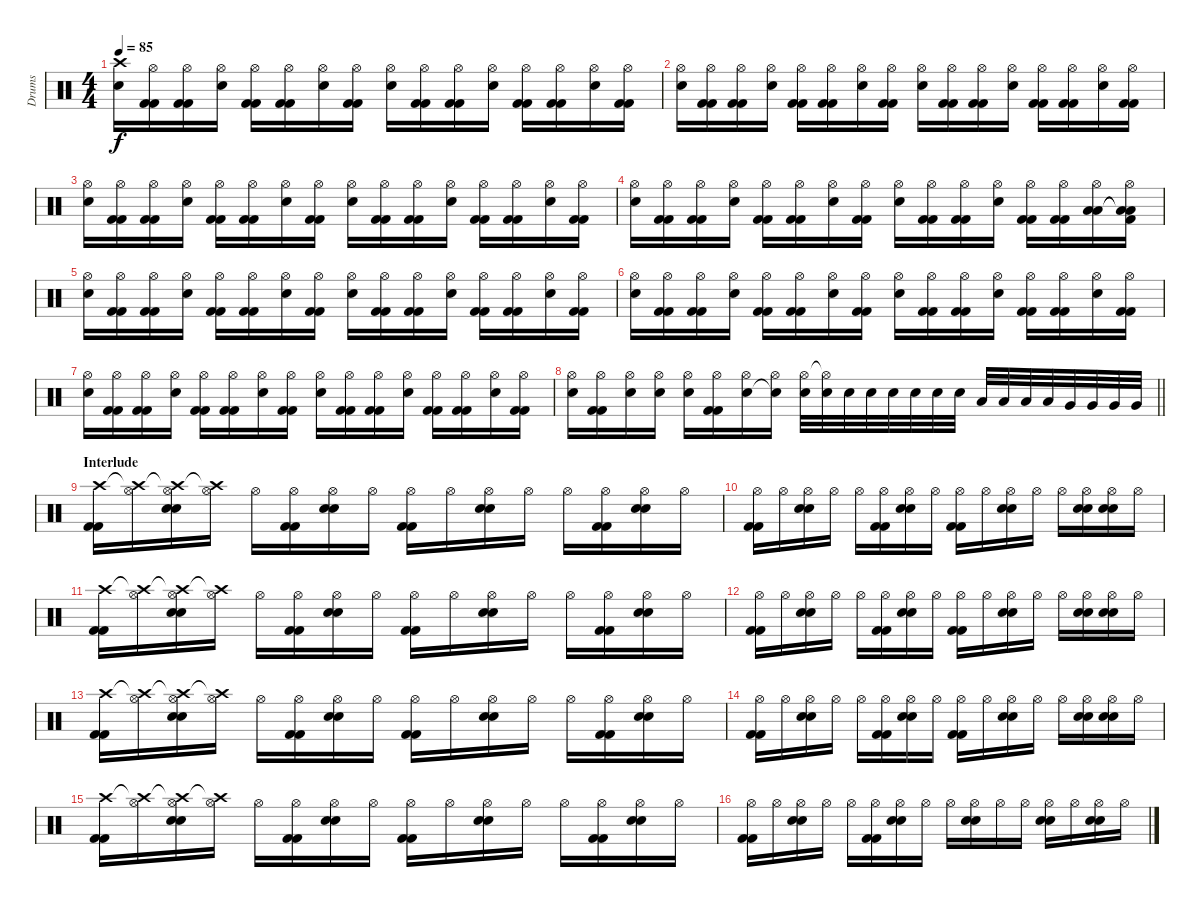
\track ("Drums" "Drums") {instrument percussion}
\staff {score}
\articulation defaults
\ts (4 4)
\tempo 85
\clef neutral
\ks c
("Crash high (hit)" "Snare (hit) 2").16{dy f} ("Hi-Hat (open)" "Kick (hit) 2" "Kick (hit) 2").16 ("Hi-Hat (open)" "Kick (hit) 2" "Kick (hit) 2").16 ("Hi-Hat (open)" "Snare (hit) 2").16 ("Hi-Hat (open)" "Kick (hit) 2" "Kick (hit) 2").16 ("Hi-Hat (open)" "Kick (hit) 2" "Kick (hit) 2").16 ("Hi-Hat (open)" "Snare (hit) 2").16 ("Hi-Hat (open)" "Kick (hit) 2" "Kick (hit) 2").16 ("Hi-Hat (open)" "Snare (hit) 2").16 ("Hi-Hat (open)" "Kick (hit) 2" "Kick (hit) 2").16 ("Hi-Hat (open)" "Kick (hit) 2" "Kick (hit) 2").16 ("Hi-Hat (open)" "Snare (hit) 2").16 ("Hi-Hat (open)" "Kick (hit) 2" "Kick (hit) 2").16 ("Hi-Hat (open)" "Kick (hit) 2" "Kick (hit) 2").16 ("Hi-Hat (open)" "Snare (hit) 2").16 ("Hi-Hat (open)" "Kick (hit) 2" "Kick (hit) 2").16 |
("Hi-Hat (open)" "Snare (hit) 2").16 ("Hi-Hat (open)" "Kick (hit) 2" "Kick (hit) 2").16 ("Hi-Hat (open)" "Kick (hit) 2" "Kick (hit) 2").16 ("Hi-Hat (open)" "Snare (hit) 2").16 ("Hi-Hat (open)" "Kick (hit) 2" "Kick (hit) 2").16 ("Hi-Hat (open)" "Kick (hit) 2" "Kick (hit) 2").16 ("Hi-Hat (open)" "Snare (hit) 2").16 ("Hi-Hat (open)" "Kick (hit) 2" "Kick (hit) 2").16 ("Hi-Hat (open)" "Snare (hit) 2").16 ("Hi-Hat (open)" "Kick (hit) 2" "Kick (hit) 2").16 ("Hi-Hat (open)" "Kick (hit) 2" "Kick (hit) 2").16 ("Hi-Hat (open)" "Snare (hit) 2").16 ("Hi-Hat (open)" "Kick (hit) 2" "Kick (hit) 2").16 ("Hi-Hat (open)" "Kick (hit) 2" "Kick (hit) 2").16 ("Hi-Hat (open)" "Snare (hit) 2").16 ("Hi-Hat (open)" "Kick (hit) 2" "Kick (hit) 2").16 |
("Hi-Hat (open)" "Snare (hit) 2").16 ("Hi-Hat (open)" "Kick (hit) 2" "Kick (hit) 2").16 ("Hi-Hat (open)" "Kick (hit) 2" "Kick (hit) 2").16 ("Hi-Hat (open)" "Snare (hit) 2").16 ("Hi-Hat (open)" "Kick (hit) 2" "Kick (hit) 2").16 ("Hi-Hat (open)" "Kick (hit) 2" "Kick (hit) 2").16 ("Hi-Hat (open)" "Snare (hit) 2").16 ("Hi-Hat (open)" "Kick (hit) 2" "Kick (hit) 2").16 ("Hi-Hat (open)" "Snare (hit) 2").16 ("Hi-Hat (open)" "Kick (hit) 2" "Kick (hit) 2").16 ("Hi-Hat (open)" "Kick (hit) 2" "Kick (hit) 2").16 ("Hi-Hat (open)" "Snare (hit) 2").16 ("Hi-Hat (open)" "Kick (hit) 2" "Kick (hit) 2").16 ("Hi-Hat (open)" "Kick (hit) 2" "Kick (hit) 2").16 ("Hi-Hat (open)" "Snare (hit) 2").16 ("Hi-Hat (open)" "Kick (hit) 2" "Kick (hit) 2").16 |
("Hi-Hat (open)" "Snare (hit) 2").16 ("Hi-Hat (open)" "Kick (hit) 2" "Kick (hit) 2").16 ("Hi-Hat (open)" "Kick (hit) 2" "Kick (hit) 2").16 ("Hi-Hat (open)" "Snare (hit) 2").16 ("Hi-Hat (open)" "Kick (hit) 2" "Kick (hit) 2").16 ("Hi-Hat (open)" "Kick (hit) 2" "Kick (hit) 2").16 ("Hi-Hat (open)" "Snare (hit) 2").16 ("Hi-Hat (open)" "Kick (hit) 2" "Kick (hit) 2").16 ("Hi-Hat (open)" "Snare (hit) 2").16 ("Hi-Hat (open)" "Kick (hit) 2" "Kick (hit) 2").16 ("Hi-Hat (open)" "Kick (hit) 2" "Kick (hit) 2").16 ("Hi-Hat (open)" "Snare (hit) 2").16 ("Hi-Hat (open)" "Kick (hit) 2" "Kick (hit) 2").16 ("Hi-Hat (open)" "Kick (hit) 2" "Kick (hit) 2").16 ("Hi-Hat (open)" "Low Tom (hit)" "Low Tom (hit)").16 ("Hi-Hat (open)" "Low Tom (hit)"{t} "Low Tom (hit)"{t} "Kick (hit) 2").16 |
("Hi-Hat (open)" "Snare (hit) 2").16 ("Hi-Hat (open)" "Kick (hit) 2" "Kick (hit) 2").16 ("Hi-Hat (open)" "Kick (hit) 2" "Kick (hit) 2").16 ("Hi-Hat (open)" "Snare (hit) 2").16 ("Hi-Hat (open)" "Kick (hit) 2" "Kick (hit) 2").16 ("Hi-Hat (open)" "Kick (hit) 2" "Kick (hit) 2").16 ("Hi-Hat (open)" "Snare (hit) 2").16 ("Hi-Hat (open)" "Kick (hit) 2" "Kick (hit) 2").16 ("Hi-Hat (open)" "Snare (hit) 2").16 ("Hi-Hat (open)" "Kick (hit) 2" "Kick (hit) 2").16 ("Hi-Hat (open)" "Kick (hit) 2" "Kick (hit) 2").16 ("Hi-Hat (open)" "Snare (hit) 2").16 ("Hi-Hat (open)" "Kick (hit) 2" "Kick (hit) 2").16 ("Hi-Hat (open)" "Kick (hit) 2" "Kick (hit) 2").16 ("Hi-Hat (open)" "Snare (hit) 2").16 ("Hi-Hat (open)" "Kick (hit) 2" "Kick (hit) 2").16 |
("Hi-Hat (open)" "Snare (hit) 2").16 ("Hi-Hat (open)" "Kick (hit) 2" "Kick (hit) 2").16 ("Hi-Hat (open)" "Kick (hit) 2" "Kick (hit) 2").16 ("Hi-Hat (open)" "Snare (hit) 2").16 ("Hi-Hat (open)" "Kick (hit) 2" "Kick (hit) 2").16 ("Hi-Hat (open)" "Kick (hit) 2" "Kick (hit) 2").16 ("Hi-Hat (open)" "Snare (hit) 2").16 ("Hi-Hat (open)" "Kick (hit) 2" "Kick (hit) 2").16 ("Hi-Hat (open)" "Snare (hit) 2").16 ("Hi-Hat (open)" "Kick (hit) 2" "Kick (hit) 2").16 ("Hi-Hat (open)" "Kick (hit) 2" "Kick (hit) 2").16 ("Hi-Hat (open)" "Snare (hit) 2").16 ("Hi-Hat (open)" "Kick (hit) 2" "Kick (hit) 2").16 ("Hi-Hat (open)" "Kick (hit) 2" "Kick (hit) 2").16 ("Hi-Hat (open)" "Snare (hit) 2").16 ("Hi-Hat (open)" "Kick (hit) 2" "Kick (hit) 2").16 |
("Hi-Hat (open)" "Snare (hit) 2").16 ("Hi-Hat (open)" "Kick (hit) 2" "Kick (hit) 2").16 ("Hi-Hat (open)" "Kick (hit) 2" "Kick (hit) 2").16 ("Hi-Hat (open)" "Snare (hit) 2").16 ("Hi-Hat (open)" "Kick (hit) 2" "Kick (hit) 2").16 ("Hi-Hat (open)" "Kick (hit) 2" "Kick (hit) 2").16 ("Hi-Hat (open)" "Snare (hit) 2").16 ("Hi-Hat (open)" "Kick (hit) 2" "Kick (hit) 2").16 ("Hi-Hat (open)" "Snare (hit) 2").16 ("Hi-Hat (open)" "Kick (hit) 2" "Kick (hit) 2").16 ("Hi-Hat (open)" "Kick (hit) 2" "Kick (hit) 2").16 ("Hi-Hat (open)" "Snare (hit) 2").16 ("Hi-Hat (open)" "Kick (hit) 2" "Kick (hit) 2").16 ("Hi-Hat (open)" "Kick (hit) 2" "Kick (hit) 2").16 ("Hi-Hat (open)" "Snare (hit) 2").16 ("Hi-Hat (open)" "Kick (hit) 2" "Kick (hit) 2").16 |
\barLineRight lightlight
("Hi-Hat (open)" "Snare (hit) 2").16 ("Hi-Hat (open)" "Kick (hit) 2" "Kick (hit) 2").16 ("Hi-Hat (open)" "Snare (hit) 2").16 ("Hi-Hat (open)" "Snare (hit) 2").16 ("Hi-Hat (open)" "Snare (hit) 2").16 ("Hi-Hat (open)" "Kick (hit) 2" "Kick (hit) 2").16 ("Hi-Hat (open)" "Snare (hit) 2").16 ("Hi-Hat (open)" "Snare (hit) 2"{t}).16 ("Hi-Hat (open)" "Snare (hit) 2").32 ("Hi-Hat (open)"{t} "Snare (hit) 2").32 "Snare (hit) 2".32 "Snare (hit) 2".32 "Snare (hit) 2".32 "Snare (hit) 2".32 "Snare (hit) 2".32 "Snare (hit) 2".32 "Low Tom (hit)".32 "Low Tom (hit)".32 "Low Tom (hit)".32 "Low Tom (hit)".32 "Very Low Tom (hit)".32 "Very Low Tom (hit)".32 "Very Low Tom (hit)".32 "Very Low Tom (hit)".32 |
\section ("" "Interlude")
("Crash high (hit)" "Kick (hit) 2" "Kick (hit) 2").16 ("Crash high (hit)"{t} "Hi-Hat (open)").16 ("Crash high (hit)"{t} "Hi-Hat (open)" "Snare (hit) 2" "Snare (hit) 2").16 ("Crash high (hit)"{t} "Hi-Hat (open)").16 "Hi-Hat (open)".16 ("Hi-Hat (open)" "Kick (hit) 2" "Kick (hit) 2").16 ("Hi-Hat (open)" "Snare (hit) 2" "Snare (hit) 2").16 "Hi-Hat (open)".16 ("Hi-Hat (open)" "Kick (hit) 2" "Kick (hit) 2").16 "Hi-Hat (open)".16 ("Hi-Hat (open)" "Snare (hit) 2" "Snare (hit) 2").16 "Hi-Hat (open)".16 "Hi-Hat (open)".16 ("Hi-Hat (open)" "Kick (hit) 2" "Kick (hit) 2").16 ("Hi-Hat (open)" "Snare (hit) 2" "Snare (hit) 2").16 "Hi-Hat (open)".16 |
("Hi-Hat (open)" "Kick (hit) 2" "Kick (hit) 2").16 "Hi-Hat (open)".16 ("Hi-Hat (open)" "Snare (hit) 2" "Snare (hit) 2").16 "Hi-Hat (open)".16 "Hi-Hat (open)".16 ("Hi-Hat (open)" "Kick (hit) 2" "Kick (hit) 2").16 ("Hi-Hat (open)" "Snare (hit) 2" "Snare (hit) 2").16 "Hi-Hat (open)".16 ("Hi-Hat (open)" "Kick (hit) 2" "Kick (hit) 2").16 "Hi-Hat (open)".16 ("Hi-Hat (open)" "Snare (hit) 2" "Snare (hit) 2").16 "Hi-Hat (open)".16 "Hi-Hat (open)".16 ("Hi-Hat (open)" "Snare (hit) 2" "Snare (hit) 2").16 ("Hi-Hat (open)" "Snare (hit) 2" "Snare (hit) 2").16 "Hi-Hat (open)".16 |
("Crash high (hit)" "Kick (hit) 2" "Kick (hit) 2").16 ("Crash high (hit)"{t} "Hi-Hat (open)").16 ("Crash high (hit)"{t} "Hi-Hat (open)" "Snare (hit) 2" "Snare (hit) 2").16 ("Crash high (hit)"{t} "Hi-Hat (open)").16 "Hi-Hat (open)".16 ("Hi-Hat (open)" "Kick (hit) 2" "Kick (hit) 2").16 ("Hi-Hat (open)" "Snare (hit) 2" "Snare (hit) 2").16 "Hi-Hat (open)".16 ("Hi-Hat (open)" "Kick (hit) 2" "Kick (hit) 2").16 "Hi-Hat (open)".16 ("Hi-Hat (open)" "Snare (hit) 2" "Snare (hit) 2").16 "Hi-Hat (open)".16 "Hi-Hat (open)".16 ("Hi-Hat (open)" "Kick (hit) 2" "Kick (hit) 2").16 ("Hi-Hat (open)" "Snare (hit) 2" "Snare (hit) 2").16 "Hi-Hat (open)".16 |
("Hi-Hat (open)" "Kick (hit) 2" "Kick (hit) 2").16 "Hi-Hat (open)".16 ("Hi-Hat (open)" "Snare (hit) 2" "Snare (hit) 2").16 "Hi-Hat (open)".16 "Hi-Hat (open)".16 ("Hi-Hat (open)" "Kick (hit) 2" "Kick (hit) 2").16 ("Hi-Hat (open)" "Snare (hit) 2" "Snare (hit) 2").16 "Hi-Hat (open)".16 ("Hi-Hat (open)" "Kick (hit) 2" "Kick (hit) 2").16 "Hi-Hat (open)".16 ("Hi-Hat (open)" "Snare (hit) 2" "Snare (hit) 2").16 "Hi-Hat (open)".16 "Hi-Hat (open)".16 ("Hi-Hat (open)" "Snare (hit) 2" "Snare (hit) 2").16 ("Hi-Hat (open)" "Snare (hit) 2" "Snare (hit) 2").16 "Hi-Hat (open)".16 |
("Crash high (hit)" "Kick (hit) 2" "Kick (hit) 2").16 ("Crash high (hit)"{t} "Hi-Hat (open)").16 ("Crash high (hit)"{t} "Hi-Hat (open)" "Snare (hit) 2" "Snare (hit) 2").16 ("Crash high (hit)"{t} "Hi-Hat (open)").16 "Hi-Hat (open)".16 ("Hi-Hat (open)" "Kick (hit) 2" "Kick (hit) 2").16 ("Hi-Hat (open)" "Snare (hit) 2" "Snare (hit) 2").16 "Hi-Hat (open)".16 ("Hi-Hat (open)" "Kick (hit) 2" "Kick (hit) 2").16 "Hi-Hat (open)".16 ("Hi-Hat (open)" "Snare (hit) 2" "Snare (hit) 2").16 "Hi-Hat (open)".16 "Hi-Hat (open)".16 ("Hi-Hat (open)" "Kick (hit) 2" "Kick (hit) 2").16 ("Hi-Hat (open)" "Snare (hit) 2" "Snare (hit) 2").16 "Hi-Hat (open)".16 |
("Hi-Hat (open)" "Kick (hit) 2" "Kick (hit) 2").16 "Hi-Hat (open)".16 ("Hi-Hat (open)" "Snare (hit) 2" "Snare (hit) 2").16 "Hi-Hat (open)".16 "Hi-Hat (open)".16 ("Hi-Hat (open)" "Kick (hit) 2" "Kick (hit) 2").16 ("Hi-Hat (open)" "Snare (hit) 2" "Snare (hit) 2").16 "Hi-Hat (open)".16 ("Hi-Hat (open)" "Kick (hit) 2" "Kick (hit) 2").16 "Hi-Hat (open)".16 ("Hi-Hat (open)" "Snare (hit) 2" "Snare (hit) 2").16 "Hi-Hat (open)".16 "Hi-Hat (open)".16 ("Hi-Hat (open)" "Snare (hit) 2" "Snare (hit) 2").16 ("Hi-Hat (open)" "Snare (hit) 2" "Snare (hit) 2").16 "Hi-Hat (open)".16 |
("Crash high (hit)" "Kick (hit) 2" "Kick (hit) 2").16 ("Crash high (hit)"{t} "Hi-Hat (open)").16 ("Crash high (hit)"{t} "Hi-Hat (open)" "Snare (hit) 2" "Snare (hit) 2").16 ("Crash high (hit)"{t} "Hi-Hat (open)").16 "Hi-Hat (open)".16 ("Hi-Hat (open)" "Kick (hit) 2" "Kick (hit) 2").16 ("Hi-Hat (open)" "Snare (hit) 2" "Snare (hit) 2").16 "Hi-Hat (open)".16 ("Hi-Hat (open)" "Kick (hit) 2" "Kick (hit) 2").16 "Hi-Hat (open)".16 ("Hi-Hat (open)" "Snare (hit) 2" "Snare (hit) 2").16 "Hi-Hat (open)".16 "Hi-Hat (open)".16 ("Hi-Hat (open)" "Kick (hit) 2" "Kick (hit) 2").16 ("Hi-Hat (open)" "Snare (hit) 2" "Snare (hit) 2").16 "Hi-Hat (open)".16 |
("Hi-Hat (open)" "Kick (hit) 2" "Kick (hit) 2").16 "Hi-Hat (open)".16 ("Hi-Hat (open)" "Snare (hit) 2" "Snare (hit) 2").16 "Hi-Hat (open)".16 "Hi-Hat (open)".16 ("Hi-Hat (open)" "Kick (hit) 2" "Kick (hit) 2").16 ("Hi-Hat (open)" "Snare (hit) 2" "Snare (hit) 2").16 "Hi-Hat (open)".16 "Hi-Hat (open)".16 ("Hi-Hat (open)" "Snare (hit) 2" "Snare (hit) 2").16 "Hi-Hat (open)".16 "Hi-Hat (open)".16 ("Hi-Hat (open)" "Snare (hit) 2" "Snare (hit) 2").16 "Hi-Hat (open)".16 ("Hi-Hat (open)" "Snare (hit) 2" "Snare (hit) 2").16 "Hi-Hat (open)".16
